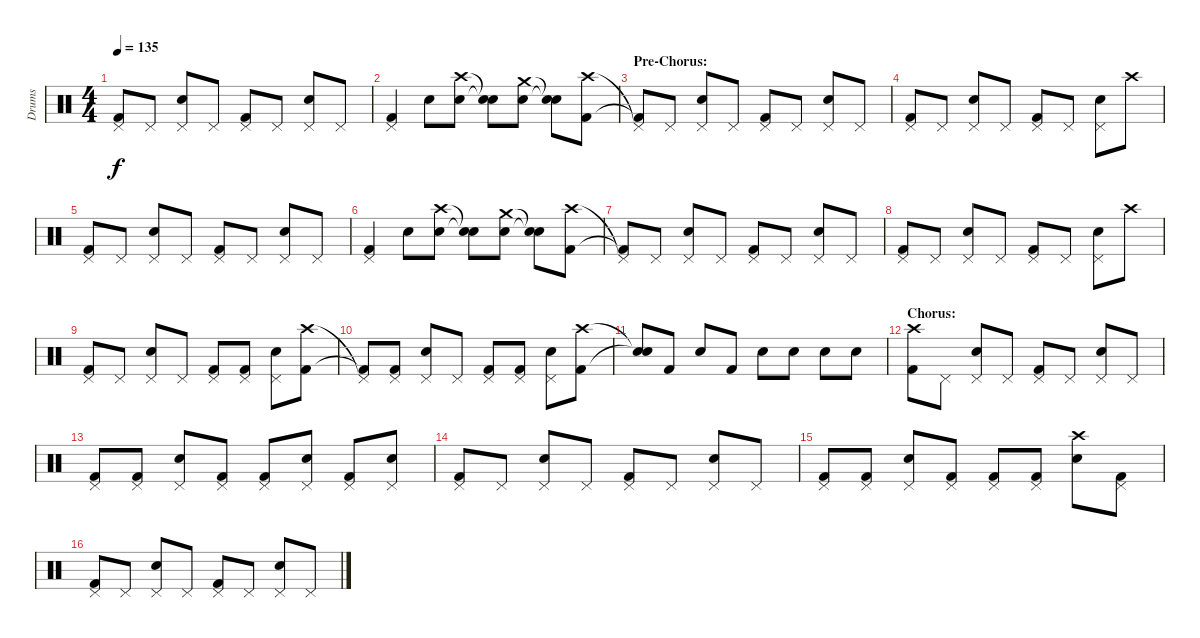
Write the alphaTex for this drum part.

\track ("Drums" "Drums") {instrument percussion}
\staff {score}
\articulation defaults
\ts (4 4)
\tempo 135
\clef neutral
\ks c
("Pedal Hi-Hat (hit)" "Kick (hit) 2").8{dy f} "Pedal Hi-Hat (hit)".8 ("Pedal Hi-Hat (hit)" "Snare (hit) 2").8 "Pedal Hi-Hat (hit)".8 ("Pedal Hi-Hat (hit)" "Kick (hit) 2").8 "Pedal Hi-Hat (hit)".8 ("Pedal Hi-Hat (hit)" "Snare (hit) 2").8 "Pedal Hi-Hat (hit)".8 |
("Pedal Hi-Hat (hit)" "Kick (hit) 2").4 "Snare (hit) 2".8 ("Crash high (hit)" "Snare (hit) 2").8 ("Snare (hit)"{t} "Snare (hit)"{t}).8 ("Crash medium (hit)" "Snare (hit) 2").8 ("Snare (hit)"{t} "Snare (hit)"{t}).8 ("Crash high (hit)" "Kick (hit) 2").8 |
\section ("" "Pre-Chorus:")
("Pedal Hi-Hat (hit)"{t} "Kick (hit) 2"{t}).8 "Pedal Hi-Hat (hit)".8 ("Pedal Hi-Hat (hit)" "Snare (hit) 2").8 "Pedal Hi-Hat (hit)".8 ("Pedal Hi-Hat (hit)" "Kick (hit) 2").8 "Pedal Hi-Hat (hit)".8 ("Pedal Hi-Hat (hit)" "Snare (hit) 2").8 "Pedal Hi-Hat (hit)".8 |
("Pedal Hi-Hat (hit)" "Kick (hit) 2").8 "Pedal Hi-Hat (hit)".8 ("Pedal Hi-Hat (hit)" "Snare (hit) 2").8 "Pedal Hi-Hat (hit)".8 ("Pedal Hi-Hat (hit)" "Kick (hit) 2").8 "Pedal Hi-Hat (hit)".8 ("Pedal Hi-Hat (hit)" "Snare (hit) 2").8 "Crash high (hit)".8 |
("Pedal Hi-Hat (hit)" "Kick (hit) 2").8 "Pedal Hi-Hat (hit)".8 ("Pedal Hi-Hat (hit)" "Snare (hit) 2").8 "Pedal Hi-Hat (hit)".8 ("Pedal Hi-Hat (hit)" "Kick (hit) 2").8 "Pedal Hi-Hat (hit)".8 ("Pedal Hi-Hat (hit)" "Snare (hit) 2").8 "Pedal Hi-Hat (hit)".8 |
("Pedal Hi-Hat (hit)" "Kick (hit) 2").4 "Snare (hit) 2".8 ("Crash high (hit)" "Snare (hit) 2").8 ("Snare (hit)"{t} "Snare (hit)"{t}).8 ("Crash medium (hit)" "Snare (hit) 2").8 ("Snare (hit)"{t} "Snare (hit)"{t}).8 ("Crash high (hit)" "Kick (hit) 2").8 |
("Pedal Hi-Hat (hit)"{t} "Kick (hit) 2"{t}).8 "Pedal Hi-Hat (hit)".8 ("Pedal Hi-Hat (hit)" "Snare (hit) 2").8 "Pedal Hi-Hat (hit)".8 ("Pedal Hi-Hat (hit)" "Kick (hit) 2").8 "Pedal Hi-Hat (hit)".8 ("Pedal Hi-Hat (hit)" "Snare (hit) 2").8 "Pedal Hi-Hat (hit)".8 |
("Pedal Hi-Hat (hit)" "Kick (hit) 2").8 "Pedal Hi-Hat (hit)".8 ("Pedal Hi-Hat (hit)" "Snare (hit) 2").8 "Pedal Hi-Hat (hit)".8 ("Pedal Hi-Hat (hit)" "Kick (hit) 2").8 "Pedal Hi-Hat (hit)".8 ("Pedal Hi-Hat (hit)" "Snare (hit) 2").8 "Crash high (hit)".8 |
("Pedal Hi-Hat (hit)" "Kick (hit) 2").8 "Pedal Hi-Hat (hit)".8 ("Pedal Hi-Hat (hit)" "Snare (hit) 2").8 "Pedal Hi-Hat (hit)".8 ("Pedal Hi-Hat (hit)" "Kick (hit) 2").8 ("Pedal Hi-Hat (hit)" "Kick (hit) 2").8 ("Pedal Hi-Hat (hit)" "Snare (hit) 2").8 ("Crash high (hit)" "Kick (hit) 2").8 |
("Pedal Hi-Hat (hit)"{t} "Kick (hit) 2"{t}).8 ("Pedal Hi-Hat (hit)" "Kick (hit) 2").8 ("Pedal Hi-Hat (hit)" "Snare (hit) 2").8 "Pedal Hi-Hat (hit)".8 ("Pedal Hi-Hat (hit)" "Kick (hit) 2").8 ("Pedal Hi-Hat (hit)" "Kick (hit) 2").8 ("Pedal Hi-Hat (hit)" "Snare (hit) 2").8 ("Crash high (hit)" "Kick (hit) 2").8 |
("Snare (hit)"{t} "Snare (hit)"{t}).8 "Kick (hit) 2".8 "Snare (hit) 2".8 "Kick (hit) 2".8 "Snare (hit) 2".8 "Snare (hit) 2".8 "Snare (hit) 2".8 "Snare (hit) 2".8 |
\section ("" "Chorus:")
("Crash high (hit)" "Kick (hit) 2").8 "Pedal Hi-Hat (hit)".8 ("Pedal Hi-Hat (hit)" "Snare (hit) 2").8 "Pedal Hi-Hat (hit)".8 ("Pedal Hi-Hat (hit)" "Kick (hit) 2").8 "Pedal Hi-Hat (hit)".8 ("Pedal Hi-Hat (hit)" "Snare (hit) 2").8 "Pedal Hi-Hat (hit)".8 |
("Pedal Hi-Hat (hit)" "Kick (hit) 2").8 ("Pedal Hi-Hat (hit)" "Kick (hit) 2").8 ("Pedal Hi-Hat (hit)" "Snare (hit) 2").8 ("Pedal Hi-Hat (hit)" "Kick (hit) 2").8 ("Pedal Hi-Hat (hit)" "Kick (hit) 2").8 ("Pedal Hi-Hat (hit)" "Snare (hit) 2").8 ("Pedal Hi-Hat (hit)" "Kick (hit) 2").8 ("Pedal Hi-Hat (hit)" "Snare (hit) 2").8 |
("Pedal Hi-Hat (hit)" "Kick (hit) 2").8 "Pedal Hi-Hat (hit)".8 ("Pedal Hi-Hat (hit)" "Snare (hit) 2").8 "Pedal Hi-Hat (hit)".8 ("Pedal Hi-Hat (hit)" "Kick (hit) 2").8 "Pedal Hi-Hat (hit)".8 ("Pedal Hi-Hat (hit)" "Snare (hit) 2").8 "Pedal Hi-Hat (hit)".8 |
("Pedal Hi-Hat (hit)" "Kick (hit) 2").8 ("Pedal Hi-Hat (hit)" "Kick (hit) 2").8 ("Pedal Hi-Hat (hit)" "Snare (hit) 2").8 ("Pedal Hi-Hat (hit)" "Kick (hit) 2").8 ("Pedal Hi-Hat (hit)" "Kick (hit) 2").8 ("Pedal Hi-Hat (hit)" "Kick (hit) 2").8 ("Crash high (hit)" "Snare (hit) 2").8 ("Pedal Hi-Hat (hit)" "Kick (hit) 2").8 |
("Pedal Hi-Hat (hit)" "Kick (hit) 2").8 "Pedal Hi-Hat (hit)".8 ("Pedal Hi-Hat (hit)" "Snare (hit) 2").8 "Pedal Hi-Hat (hit)".8 ("Pedal Hi-Hat (hit)" "Kick (hit) 2").8 "Pedal Hi-Hat (hit)".8 ("Pedal Hi-Hat (hit)" "Snare (hit) 2").8 "Pedal Hi-Hat (hit)".8
